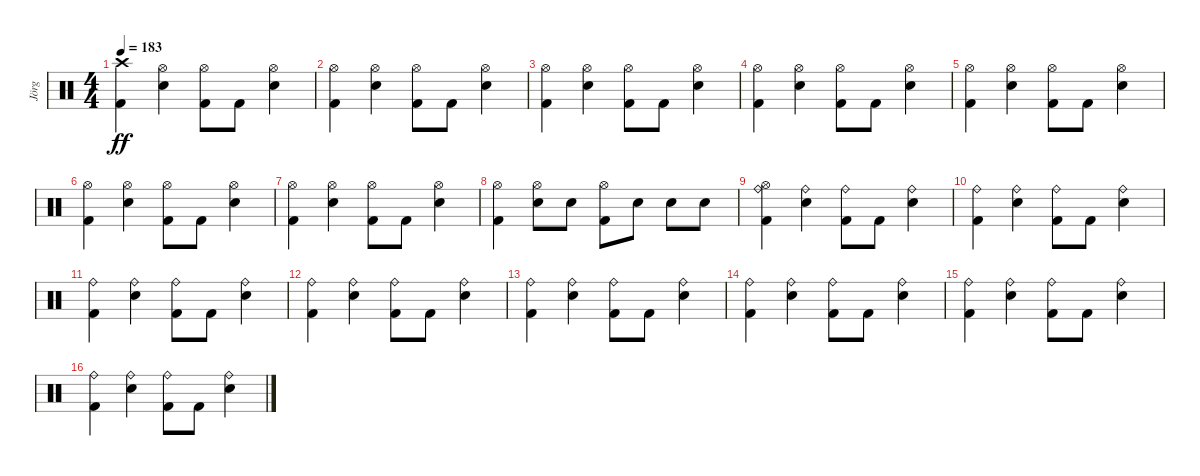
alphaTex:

\track ("Jörg" "Jörg") {instrument percussion}
\staff {score}
\articulation defaults
\ts (4 4)
\tempo 183
\clef neutral
\ks c
("Kick (hit) 2" "Crash high (hit)").4{dy ff} ("Snare (hit) 2" "Hi-Hat (open)").4 ("Kick (hit) 2" "Hi-Hat (open)").8 "Kick (hit) 2".8 ("Snare (hit) 2" "Hi-Hat (open)").4 |
("Kick (hit) 2" "Hi-Hat (open)").4 ("Snare (hit) 2" "Hi-Hat (open)").4 ("Kick (hit) 2" "Hi-Hat (open)").8 "Kick (hit) 2".8 ("Snare (hit) 2" "Hi-Hat (open)").4 |
("Kick (hit) 2" "Hi-Hat (open)").4 ("Snare (hit) 2" "Hi-Hat (open)").4 ("Kick (hit) 2" "Hi-Hat (open)").8 "Kick (hit) 2".8 ("Snare (hit) 2" "Hi-Hat (open)").4 |
("Kick (hit) 2" "Hi-Hat (open)").4 ("Snare (hit) 2" "Hi-Hat (open)").4 ("Kick (hit) 2" "Hi-Hat (open)").8 "Kick (hit) 2".8 ("Snare (hit) 2" "Hi-Hat (open)").4 |
("Kick (hit) 2" "Hi-Hat (open)").4 ("Snare (hit) 2" "Hi-Hat (open)").4 ("Kick (hit) 2" "Hi-Hat (open)").8 "Kick (hit) 2".8 ("Snare (hit) 2" "Hi-Hat (open)").4 |
("Kick (hit) 2" "Hi-Hat (open)").4 ("Snare (hit) 2" "Hi-Hat (open)").4 ("Kick (hit) 2" "Hi-Hat (open)").8 "Kick (hit) 2".8 ("Snare (hit) 2" "Hi-Hat (open)").4 |
("Kick (hit) 2" "Hi-Hat (open)").4 ("Snare (hit) 2" "Hi-Hat (open)").4 ("Kick (hit) 2" "Hi-Hat (open)").8 "Kick (hit) 2".8 ("Snare (hit) 2" "Hi-Hat (open)").4 |
("Hi-Hat (open)" "Kick (hit) 2").4 ("Snare (hit) 2" "Hi-Hat (open)").8 "Snare (hit) 2".8 ("Kick (hit) 2" "Hi-Hat (open)").8 "Snare (hit) 2".8 "Snare (hit) 2".8 "Snare (hit) 2".8 |
("Kick (hit) 2" "Hi-Hat (open)" "Ride (bell)").4 ("Snare (hit) 2" "Ride (bell)").4 ("Kick (hit) 2" "Ride (bell)").8 "Kick (hit) 2".8 ("Snare (hit) 2" "Ride (bell)").4 |
("Kick (hit) 2" "Ride (bell)").4 ("Snare (hit) 2" "Ride (bell)").4 ("Kick (hit) 2" "Ride (bell)").8 "Kick (hit) 2".8 ("Snare (hit) 2" "Ride (bell)").4 |
("Kick (hit) 2" "Ride (bell)").4 ("Snare (hit) 2" "Ride (bell)").4 ("Kick (hit) 2" "Ride (bell)").8 "Kick (hit) 2".8 ("Snare (hit) 2" "Ride (bell)").4 |
("Kick (hit) 2" "Ride (bell)").4 ("Snare (hit) 2" "Ride (bell)").4 ("Kick (hit) 2" "Ride (bell)").8 "Kick (hit) 2".8 ("Snare (hit) 2" "Ride (bell)").4 |
("Kick (hit) 2" "Ride (bell)").4 ("Snare (hit) 2" "Ride (bell)").4 ("Kick (hit) 2" "Ride (bell)").8 "Kick (hit) 2".8 ("Snare (hit) 2" "Ride (bell)").4 |
("Kick (hit) 2" "Ride (bell)").4 ("Snare (hit) 2" "Ride (bell)").4 ("Kick (hit) 2" "Ride (bell)").8 "Kick (hit) 2".8 ("Snare (hit) 2" "Ride (bell)").4 |
("Kick (hit) 2" "Ride (bell)").4 ("Snare (hit) 2" "Ride (bell)").4 ("Kick (hit) 2" "Ride (bell)").8 "Kick (hit) 2".8 ("Snare (hit) 2" "Ride (bell)").4 |
("Kick (hit) 2" "Ride (bell)").4 ("Snare (hit) 2" "Ride (bell)").4 ("Kick (hit) 2" "Ride (bell)").8 "Kick (hit) 2".8 ("Snare (hit) 2" "Ride (bell)").4
